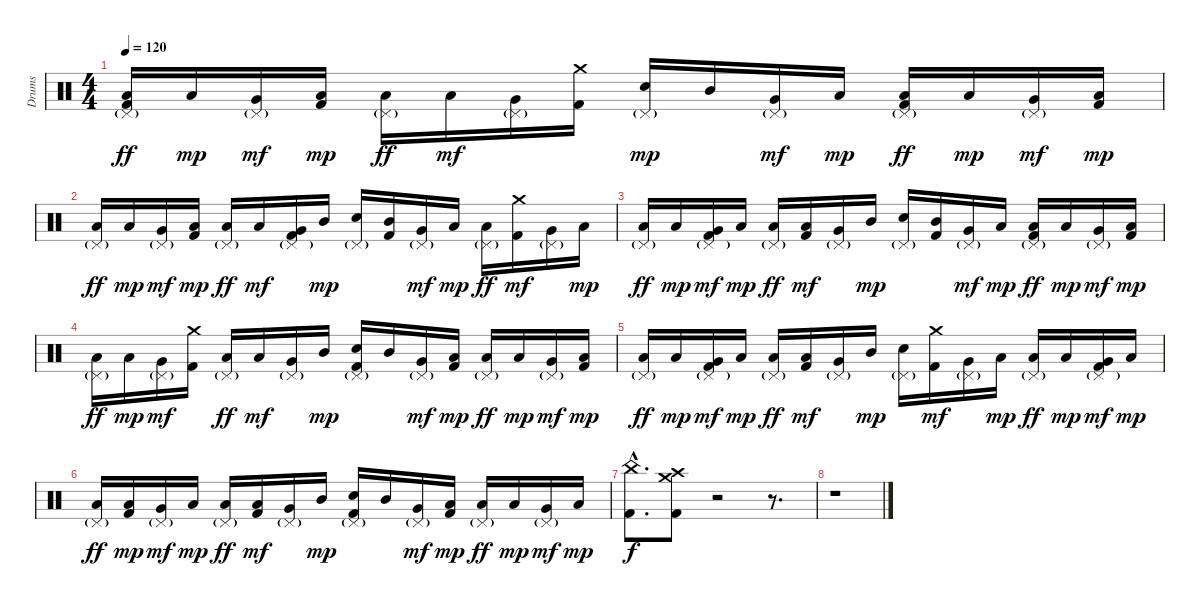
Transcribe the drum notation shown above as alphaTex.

\track ("Drums" "Drums") {instrument percussion}
\staff {score}
\articulation defaults
\ts (4 4)
\tempo 120
\clef neutral
\ks c
("Pedal Hi-Hat (hit)"{g} "Low Floor Tom (hit)" "Kick (hit) 2").16{dy ff} "Low Tom (hit)".16{dy mp} ("Pedal Hi-Hat (hit)"{g} "Very Low Tom (hit)").16{dy mf} ("Low Tom (hit)" "Kick (hit) 2").16{dy mp} ("Pedal Hi-Hat (hit)"{g} "Low Floor Tom (hit)").16{dy ff} "Low Tom (hit)".16{dy mf} ("Pedal Hi-Hat (hit)"{g} "Very Low Tom (hit)").16 ("Crash medium (hit)" "Kick (hit) 2").16 ("Pedal Hi-Hat (hit)"{g} "Electric Snare (hit)").16{dy mp} "Mid Tom (hit)".16 ("Pedal Hi-Hat (hit)"{g} "Very Low Tom (hit)").16{dy mf} "Low Tom (hit)".16{dy mp} ("Pedal Hi-Hat (hit)"{g} "Low Floor Tom (hit)" "Kick (hit) 2").16{dy ff} "Low Tom (hit)".16{dy mp} ("Pedal Hi-Hat (hit)"{g} "Very Low Tom (hit)").16{dy mf} ("Low Tom (hit)" "Kick (hit) 2").16{dy mp} |
("Pedal Hi-Hat (hit)"{g} "Low Floor Tom (hit)").16{dy ff} "Low Tom (hit)".16{dy mp} ("Pedal Hi-Hat (hit)"{g} "Very Low Tom (hit)").16{dy mf} ("Low Tom (hit)" "Kick (hit) 2").16{dy mp} ("Pedal Hi-Hat (hit)"{g} "Low Floor Tom (hit)").16{dy ff} "Low Tom (hit)".16{dy mf} ("Pedal Hi-Hat (hit)"{g} "Very Low Tom (hit)" "Kick (hit) 2").16 "Mid Tom (hit)".16{dy mp} ("Pedal Hi-Hat (hit)"{g} "Electric Snare (hit)").16 ("Mid Tom (hit)" "Kick (hit) 2").16 ("Pedal Hi-Hat (hit)"{g} "Very Low Tom (hit)").16{dy mf} "Low Tom (hit)".16{dy mp} ("Pedal Hi-Hat (hit)"{g} "Low Floor Tom (hit)").16{dy ff} ("Crash medium (hit)" "Kick (hit) 2").16{dy mf} ("Pedal Hi-Hat (hit)"{g} "Very Low Tom (hit)").16 "Low Tom (hit)".16{dy mp} |
("Pedal Hi-Hat (hit)"{g} "Low Floor Tom (hit)").16{dy ff} "Low Tom (hit)".16{dy mp} ("Pedal Hi-Hat (hit)"{g} "Very Low Tom (hit)" "Kick (hit) 2").16{dy mf} "Low Tom (hit)".16{dy mp} ("Pedal Hi-Hat (hit)"{g} "Low Floor Tom (hit)").16{dy ff} ("Low Tom (hit)" "Kick (hit) 2").16{dy mf} ("Pedal Hi-Hat (hit)"{g} "Very Low Tom (hit)").16 "Mid Tom (hit)".16{dy mp} ("Pedal Hi-Hat (hit)"{g} "Electric Snare (hit)").16 ("Mid Tom (hit)" "Kick (hit) 2").16 ("Pedal Hi-Hat (hit)"{g} "Very Low Tom (hit)").16{dy mf} "Low Tom (hit)".16{dy mp} ("Pedal Hi-Hat (hit)"{g} "Low Floor Tom (hit)" "Kick (hit) 2").16{dy ff} "Low Tom (hit)".16{dy mp} ("Pedal Hi-Hat (hit)"{g} "Very Low Tom (hit)").16{dy mf} ("Low Tom (hit)" "Kick (hit) 2").16{dy mp} |
("Pedal Hi-Hat (hit)"{g} "Low Floor Tom (hit)").16{dy ff} "Low Tom (hit)".16{dy mp} ("Pedal Hi-Hat (hit)"{g} "Very Low Tom (hit)").16{dy mf} ("Crash medium (hit)" "Kick (hit) 2").16 ("Pedal Hi-Hat (hit)"{g} "Low Floor Tom (hit)").16{dy ff} "Low Tom (hit)".16{dy mf} ("Pedal Hi-Hat (hit)"{g} "Very Low Tom (hit)").16 "Mid Tom (hit)".16{dy mp} ("Pedal Hi-Hat (hit)"{g} "Electric Snare (hit)" "Kick (hit) 2").16 "Mid Tom (hit)".16 ("Pedal Hi-Hat (hit)"{g} "Very Low Tom (hit)").16{dy mf} ("Low Tom (hit)" "Kick (hit) 2").16{dy mp} ("Pedal Hi-Hat (hit)"{g} "Low Floor Tom (hit)").16{dy ff} "Low Tom (hit)".16{dy mp} ("Pedal Hi-Hat (hit)"{g} "Very Low Tom (hit)").16{dy mf} ("Low Tom (hit)" "Kick (hit) 2").16{dy mp} |
("Pedal Hi-Hat (hit)"{g} "Low Floor Tom (hit)").16{dy ff} "Low Tom (hit)".16{dy mp} ("Pedal Hi-Hat (hit)"{g} "Very Low Tom (hit)" "Kick (hit) 2").16{dy mf} "Low Tom (hit)".16{dy mp} ("Pedal Hi-Hat (hit)"{g} "Low Floor Tom (hit)").16{dy ff} ("Low Tom (hit)" "Kick (hit) 2").16{dy mf} ("Pedal Hi-Hat (hit)"{g} "Very Low Tom (hit)").16 "Mid Tom (hit)".16{dy mp} ("Pedal Hi-Hat (hit)"{g} "Electric Snare (hit)").16 ("Crash medium (hit)" "Kick (hit) 2").16{dy mf} ("Pedal Hi-Hat (hit)"{g} "Very Low Tom (hit)").16 "Low Tom (hit)".16{dy mp} ("Pedal Hi-Hat (hit)"{g} "Low Floor Tom (hit)").16{dy ff} "Low Tom (hit)".16{dy mp} ("Pedal Hi-Hat (hit)"{g} "Very Low Tom (hit)" "Kick (hit) 2").16{dy mf} "Low Tom (hit)".16{dy mp} |
("Pedal Hi-Hat (hit)"{g} "Low Floor Tom (hit)").16{dy ff} ("Low Tom (hit)" "Kick (hit) 2").16{dy mp} ("Pedal Hi-Hat (hit)"{g} "Very Low Tom (hit)").16{dy mf} "Low Tom (hit)".16{dy mp} ("Pedal Hi-Hat (hit)"{g} "Low Floor Tom (hit)").16{dy ff} ("Low Tom (hit)" "Kick (hit) 2").16{dy mf} ("Pedal Hi-Hat (hit)"{g} "Very Low Tom (hit)").16 "Mid Tom (hit)".16{dy mp} ("Pedal Hi-Hat (hit)"{g} "Electric Snare (hit)" "Kick (hit) 2").16 "Mid Tom (hit)".16 ("Pedal Hi-Hat (hit)"{g} "Very Low Tom (hit)").16{dy mf} ("Low Tom (hit)" "Kick (hit) 2").16{dy mp} ("Pedal Hi-Hat (hit)"{g} "Low Floor Tom (hit)").16{dy ff} "Low Tom (hit)".16{dy mp} ("Pedal Hi-Hat (hit)"{g} "Very Low Tom (hit)").16{dy mf} "Low Tom (hit)".16{dy mp} |
("China (hit)"{hac} "Kick (hit) 2"{hac}).8{d dy f} ("Crash medium (hit)" "Crash high (hit)" "Kick (hit) 2").8 r.2 r.8{d} |
r.1
